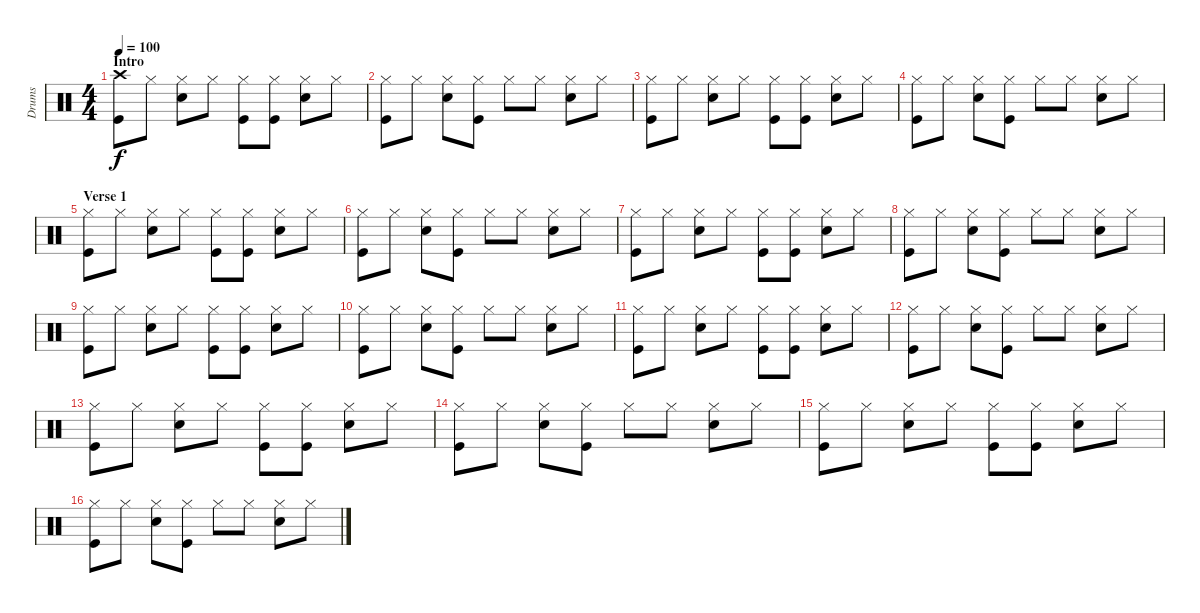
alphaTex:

\track ("Drums" "Drums") {instrument percussion}
\staff {score}
\articulation defaults
\ts (4 4)
\section ("" "Intro")
\tempo 100
\clef neutral
\ks c
("Crash high (hit)" "Kick (hit)").8{dy f} "Hi-Hat (closed)".8 ("Hi-Hat (closed)" "Snare (hit) 2").8 "Hi-Hat (closed)".8 ("Hi-Hat (closed)" "Kick (hit)").8 ("Hi-Hat (closed)" "Kick (hit)").8 ("Hi-Hat (closed)" "Snare (hit) 2").8 "Hi-Hat (closed)".8 |
("Hi-Hat (closed)" "Kick (hit)").8 "Hi-Hat (closed)".8 ("Hi-Hat (closed)" "Snare (hit) 2").8 ("Hi-Hat (closed)" "Kick (hit)").8 "Hi-Hat (closed)".8 "Hi-Hat (closed)".8 ("Hi-Hat (closed)" "Snare (hit) 2").8 "Hi-Hat (closed)".8 |
("Hi-Hat (closed)" "Kick (hit)").8 "Hi-Hat (closed)".8 ("Hi-Hat (closed)" "Snare (hit) 2").8 "Hi-Hat (closed)".8 ("Hi-Hat (closed)" "Kick (hit)").8 ("Hi-Hat (closed)" "Kick (hit)").8 ("Hi-Hat (closed)" "Snare (hit) 2").8 "Hi-Hat (closed)".8 |
("Hi-Hat (closed)" "Kick (hit)").8 "Hi-Hat (closed)".8 ("Hi-Hat (closed)" "Snare (hit) 2").8 ("Hi-Hat (closed)" "Kick (hit)").8 "Hi-Hat (closed)".8 "Hi-Hat (closed)".8 ("Hi-Hat (closed)" "Snare (hit) 2").8 "Hi-Hat (closed)".8 |
\section ("" "Verse 1")
("Hi-Hat (closed)" "Kick (hit)").8 "Hi-Hat (closed)".8 ("Hi-Hat (closed)" "Snare (hit) 2").8 "Hi-Hat (closed)".8 ("Hi-Hat (closed)" "Kick (hit)").8 ("Hi-Hat (closed)" "Kick (hit)").8 ("Hi-Hat (closed)" "Snare (hit) 2").8 "Hi-Hat (closed)".8 |
("Hi-Hat (closed)" "Kick (hit)").8 "Hi-Hat (closed)".8 ("Hi-Hat (closed)" "Snare (hit) 2").8 ("Hi-Hat (closed)" "Kick (hit)").8 "Hi-Hat (closed)".8 "Hi-Hat (closed)".8 ("Hi-Hat (closed)" "Snare (hit) 2").8 "Hi-Hat (closed)".8 |
("Hi-Hat (closed)" "Kick (hit)").8 "Hi-Hat (closed)".8 ("Hi-Hat (closed)" "Snare (hit) 2").8 "Hi-Hat (closed)".8 ("Hi-Hat (closed)" "Kick (hit)").8 ("Hi-Hat (closed)" "Kick (hit)").8 ("Hi-Hat (closed)" "Snare (hit) 2").8 "Hi-Hat (closed)".8 |
("Hi-Hat (closed)" "Kick (hit)").8 "Hi-Hat (closed)".8 ("Hi-Hat (closed)" "Snare (hit) 2").8 ("Hi-Hat (closed)" "Kick (hit)").8 "Hi-Hat (closed)".8 "Hi-Hat (closed)".8 ("Hi-Hat (closed)" "Snare (hit) 2").8 "Hi-Hat (closed)".8 |
("Hi-Hat (closed)" "Kick (hit)").8 "Hi-Hat (closed)".8 ("Hi-Hat (closed)" "Snare (hit) 2").8 "Hi-Hat (closed)".8 ("Hi-Hat (closed)" "Kick (hit)").8 ("Hi-Hat (closed)" "Kick (hit)").8 ("Hi-Hat (closed)" "Snare (hit) 2").8 "Hi-Hat (closed)".8 |
("Hi-Hat (closed)" "Kick (hit)").8 "Hi-Hat (closed)".8 ("Hi-Hat (closed)" "Snare (hit) 2").8 ("Hi-Hat (closed)" "Kick (hit)").8 "Hi-Hat (closed)".8 "Hi-Hat (closed)".8 ("Hi-Hat (closed)" "Snare (hit) 2").8 "Hi-Hat (closed)".8 |
("Hi-Hat (closed)" "Kick (hit)").8 "Hi-Hat (closed)".8 ("Hi-Hat (closed)" "Snare (hit) 2").8 "Hi-Hat (closed)".8 ("Hi-Hat (closed)" "Kick (hit)").8 ("Hi-Hat (closed)" "Kick (hit)").8 ("Hi-Hat (closed)" "Snare (hit) 2").8 "Hi-Hat (closed)".8 |
("Hi-Hat (closed)" "Kick (hit)").8 "Hi-Hat (closed)".8 ("Hi-Hat (closed)" "Snare (hit) 2").8 ("Hi-Hat (closed)" "Kick (hit)").8 "Hi-Hat (closed)".8 "Hi-Hat (closed)".8 ("Hi-Hat (closed)" "Snare (hit) 2").8 "Hi-Hat (closed)".8 |
("Hi-Hat (closed)" "Kick (hit)").8 "Hi-Hat (closed)".8 ("Hi-Hat (closed)" "Snare (hit) 2").8 "Hi-Hat (closed)".8 ("Hi-Hat (closed)" "Kick (hit)").8 ("Hi-Hat (closed)" "Kick (hit)").8 ("Hi-Hat (closed)" "Snare (hit) 2").8 "Hi-Hat (closed)".8 |
("Hi-Hat (closed)" "Kick (hit)").8 "Hi-Hat (closed)".8 ("Hi-Hat (closed)" "Snare (hit) 2").8 ("Hi-Hat (closed)" "Kick (hit)").8 "Hi-Hat (closed)".8 "Hi-Hat (closed)".8 ("Hi-Hat (closed)" "Snare (hit) 2").8 "Hi-Hat (closed)".8 |
("Hi-Hat (closed)" "Kick (hit)").8 "Hi-Hat (closed)".8 ("Hi-Hat (closed)" "Snare (hit) 2").8 "Hi-Hat (closed)".8 ("Hi-Hat (closed)" "Kick (hit)").8 ("Hi-Hat (closed)" "Kick (hit)").8 ("Hi-Hat (closed)" "Snare (hit) 2").8 "Hi-Hat (closed)".8 |
("Hi-Hat (closed)" "Kick (hit)").8 "Hi-Hat (closed)".8 ("Hi-Hat (closed)" "Snare (hit) 2").8 ("Hi-Hat (closed)" "Kick (hit)").8 "Hi-Hat (closed)".8 "Hi-Hat (closed)".8 ("Hi-Hat (closed)" "Snare (hit) 2").8 "Hi-Hat (closed)".8
